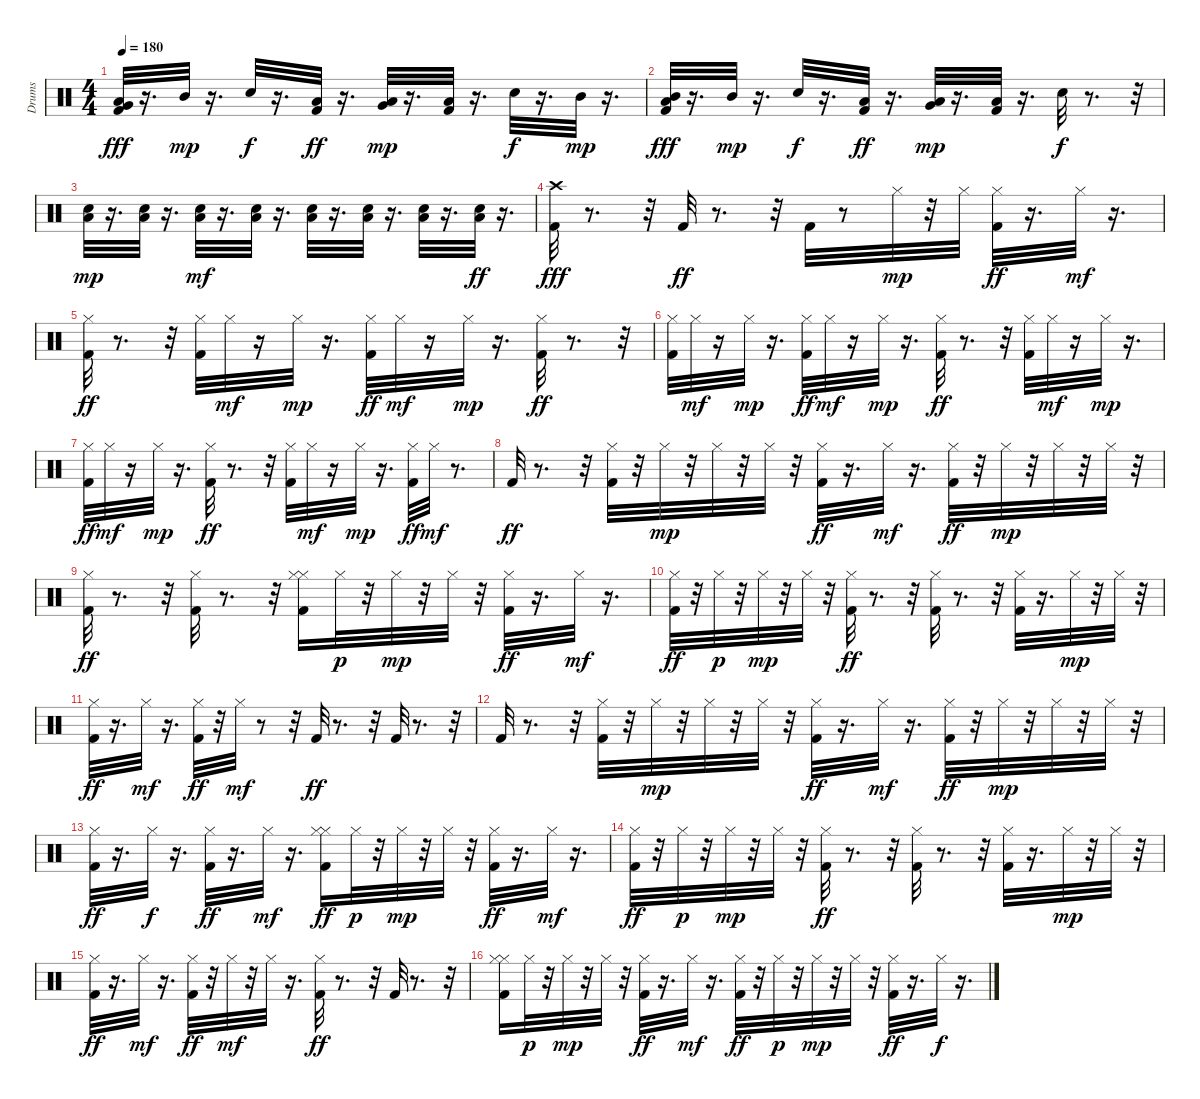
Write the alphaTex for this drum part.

\track ("Drums" "Drums") {instrument percussion}
\staff {score}
\articulation defaults
\ts (4 4)
\tempo 180
\clef neutral
\ks c
("Low Tom (hit)" "Very Low Tom (hit)" "Kick (hit) 2").32{dy fff} r.16{d} "Mid Tom (hit)".32{dy mp} r.16{d} "Snare (hit) 2".32{dy f} r.16{d} ("Low Tom (hit)" "Kick (hit) 2").32{dy ff} r.16{d} ("Very Low Tom (hit)" "Low Floor Tom (hit)").32{dy mp} r.16{d} ("Low Tom (hit)" "Kick (hit) 2").32 r.16{d} "Snare (hit) 2".32{dy f} r.16{d} "Mid Tom (hit)".32{dy mp} r.16{d} |
("Mid Tom (hit)" "Low Tom (hit)" "Kick (hit) 2").32{dy fff} r.16{d} "Mid Tom (hit)".32{dy mp} r.16{d} "Snare (hit) 2".32{dy f} r.16{d} ("Low Tom (hit)" "Kick (hit) 2").32{dy ff} r.16{d} ("Very Low Tom (hit)" "Low Floor Tom (hit)").32{dy mp} r.16{d} ("Low Tom (hit)" "Kick (hit) 2").32 r.16{d} "Snare (hit) 2".32{dy f} r.8{d} r.32 |
("Low Floor Tom (hit)" "Snare (hit) 2").32{dy mp} r.16{d} ("Low Floor Tom (hit)" "Snare (hit) 2").32 r.16{d} ("Low Floor Tom (hit)" "Snare (hit) 2").32{dy mf} r.16{d} ("Low Floor Tom (hit)" "Snare (hit) 2").32 r.16{d} ("Low Floor Tom (hit)" "Snare (hit) 2").32 r.16{d} ("Low Floor Tom (hit)" "Snare (hit) 2").32 r.16{d} ("Low Floor Tom (hit)" "Snare (hit) 2").32 r.16{d} ("Low Floor Tom (hit)" "Snare (hit) 2").32{dy ff} r.16{d} |
("Crash high (hit)" "Kick (hit) 2").32{dy fff} r.8{d} r.32 "Kick (hit) 2".32{dy ff} r.8{d} r.32 "Kick (hit) 2".32 r.8 "Hi-Hat (closed)".32{dy mp} r.32 "Hi-Hat (closed)".32 ("Hi-Hat (closed)" "Kick (hit) 2").32{dy ff} r.16{d} "Hi-Hat (closed)".32{dy mf} r.16{d} |
("Hi-Hat (closed)" "Kick (hit) 2").32{dy ff} r.8{d} r.32 ("Hi-Hat (closed)" "Kick (hit) 2").32 "Hi-Hat (closed)".32{dy mf} r.16 "Hi-Hat (closed)".32{dy mp} r.16{d} ("Hi-Hat (closed)" "Kick (hit) 2").32{dy ff} "Hi-Hat (closed)".32{dy mf} r.16 "Hi-Hat (closed)".32{dy mp} r.16{d} ("Hi-Hat (closed)" "Kick (hit) 2").32{dy ff} r.8{d} r.32 |
("Hi-Hat (closed)" "Kick (hit) 2").32 "Hi-Hat (closed)".32{dy mf} r.16 "Hi-Hat (closed)".32{dy mp} r.16{d} ("Hi-Hat (closed)" "Kick (hit) 2").32{dy ff} "Hi-Hat (closed)".32{dy mf} r.16 "Hi-Hat (closed)".32{dy mp} r.16{d} ("Hi-Hat (closed)" "Kick (hit) 2").32{dy ff} r.8{d} r.32 ("Hi-Hat (closed)" "Kick (hit) 2").32 "Hi-Hat (closed)".32{dy mf} r.16 "Hi-Hat (closed)".32{dy mp} r.16{d} |
("Hi-Hat (closed)" "Kick (hit) 2").32{dy ff} "Hi-Hat (closed)".32{dy mf} r.16 "Hi-Hat (closed)".32{dy mp} r.16{d} ("Hi-Hat (closed)" "Kick (hit) 2").32{dy ff} r.8{d} r.32 ("Hi-Hat (closed)" "Kick (hit) 2").32 "Hi-Hat (closed)".32{dy mf} r.16 "Hi-Hat (closed)".32{dy mp} r.16{d} ("Hi-Hat (closed)" "Kick (hit) 2").32{dy ff} "Hi-Hat (closed)".32{dy mf} r.8{d} |
"Kick (hit) 2".32{dy ff} r.8{d} r.32 ("Hi-Hat (closed)" "Kick (hit) 2").32 r.32 "Hi-Hat (closed)".32{dy mp} r.32 "Hi-Hat (closed)".32 r.32 "Hi-Hat (closed)".32 r.32 ("Hi-Hat (closed)" "Kick (hit) 2").32{dy ff} r.16{d} "Hi-Hat (closed)".32{dy mf} r.16{d} ("Hi-Hat (closed)" "Kick (hit) 2").32{dy ff} r.32 "Hi-Hat (closed)".32{dy mp} r.32 "Hi-Hat (closed)".32 r.32 "Hi-Hat (closed)".32 r.32 |
("Hi-Hat (closed)" "Kick (hit) 2").32{dy ff} r.8{d} r.32 ("Hi-Hat (closed)" "Kick (hit) 2").32 r.8{d} r.32 ("Hi-Hat (closed)" "Hi-Hat (closed)" "Kick (hit) 2").16 "Hi-Hat (closed)".32{dy p} r.32 "Hi-Hat (closed)".32{dy mp} r.32 "Hi-Hat (closed)".32 r.32 ("Hi-Hat (closed)" "Kick (hit) 2").32{dy ff} r.16{d} "Hi-Hat (closed)".32{dy mf} r.16{d} |
("Hi-Hat (closed)" "Kick (hit) 2").32{dy ff} r.32 "Hi-Hat (closed)".32{dy p} r.32 "Hi-Hat (closed)".32{dy mp} r.32 "Hi-Hat (closed)".32 r.32 ("Hi-Hat (closed)" "Kick (hit) 2").32{dy ff} r.8{d} r.32 ("Hi-Hat (closed)" "Kick (hit) 2").32 r.8{d} r.32 ("Hi-Hat (closed)" "Kick (hit) 2").32 r.16{d} "Hi-Hat (closed)".32{dy mp} r.32 "Hi-Hat (closed)".32 r.32 |
("Hi-Hat (closed)" "Kick (hit) 2").32{dy ff} r.16{d} "Hi-Hat (closed)".32{dy mf} r.16{d} ("Hi-Hat (closed)" "Kick (hit) 2").32{dy ff} r.32 "Hi-Hat (closed)".32{dy mf} r.8 r.32 "Kick (hit) 2".32{dy ff} r.8{d} r.32 "Kick (hit) 2".32 r.8{d} r.32 |
"Kick (hit) 2".32 r.8{d} r.32 ("Hi-Hat (closed)" "Kick (hit) 2").32 r.32 "Hi-Hat (closed)".32{dy mp} r.32 "Hi-Hat (closed)".32 r.32 "Hi-Hat (closed)".32 r.32 ("Hi-Hat (closed)" "Kick (hit) 2").32{dy ff} r.16{d} "Hi-Hat (closed)".32{dy mf} r.16{d} ("Hi-Hat (closed)" "Kick (hit) 2").32{dy ff} r.32 "Hi-Hat (closed)".32{dy mp} r.32 "Hi-Hat (closed)".32 r.32 "Hi-Hat (closed)".32 r.32 |
("Hi-Hat (closed)" "Kick (hit) 2").32{dy ff} r.16{d} "Hi-Hat (closed)".32{dy f} r.16{d} ("Hi-Hat (closed)" "Kick (hit) 2").32{dy ff} r.16{d} "Hi-Hat (closed)".32{dy mf} r.16{d} ("Hi-Hat (closed)" "Hi-Hat (closed)" "Kick (hit) 2").16{dy ff} "Hi-Hat (closed)".32{dy p} r.32 "Hi-Hat (closed)".32{dy mp} r.32 "Hi-Hat (closed)".32 r.32 ("Hi-Hat (closed)" "Kick (hit) 2").32{dy ff} r.16{d} "Hi-Hat (closed)".32{dy mf} r.16{d} |
("Hi-Hat (closed)" "Kick (hit) 2").32{dy ff} r.32 "Hi-Hat (closed)".32{dy p} r.32 "Hi-Hat (closed)".32{dy mp} r.32 "Hi-Hat (closed)".32 r.32 ("Hi-Hat (closed)" "Kick (hit) 2").32{dy ff} r.8{d} r.32 ("Hi-Hat (closed)" "Kick (hit) 2").32 r.8{d} r.32 ("Hi-Hat (closed)" "Kick (hit) 2").32 r.16{d} "Hi-Hat (closed)".32{dy mp} r.32 "Hi-Hat (closed)".32 r.32 |
("Hi-Hat (closed)" "Kick (hit) 2").32{dy ff} r.16{d} "Hi-Hat (closed)".32{dy mf} r.16{d} ("Hi-Hat (closed)" "Kick (hit) 2").32{dy ff} r.32 "Hi-Hat (closed)".32{dy mf} r.32 "Hi-Hat (closed)".32 r.16{d} ("Hi-Hat (closed)" "Kick (hit) 2").32{dy ff} r.8{d} r.32 "Kick (hit) 2".32 r.8{d} r.32 |
("Hi-Hat (closed)" "Hi-Hat (closed)" "Kick (hit) 2").16 "Hi-Hat (closed)".32{dy p} r.32 "Hi-Hat (closed)".32{dy mp} r.32 "Hi-Hat (closed)".32 r.32 ("Hi-Hat (closed)" "Kick (hit) 2").32{dy ff} r.16{d} "Hi-Hat (closed)".32{dy mf} r.16{d} ("Hi-Hat (closed)" "Kick (hit) 2").32{dy ff} r.32 "Hi-Hat (closed)".32{dy p} r.32 "Hi-Hat (closed)".32{dy mp} r.32 "Hi-Hat (closed)".32 r.32 ("Hi-Hat (closed)" "Kick (hit) 2").32{dy ff} r.16{d} "Hi-Hat (closed)".32{dy f} r.16{d}
